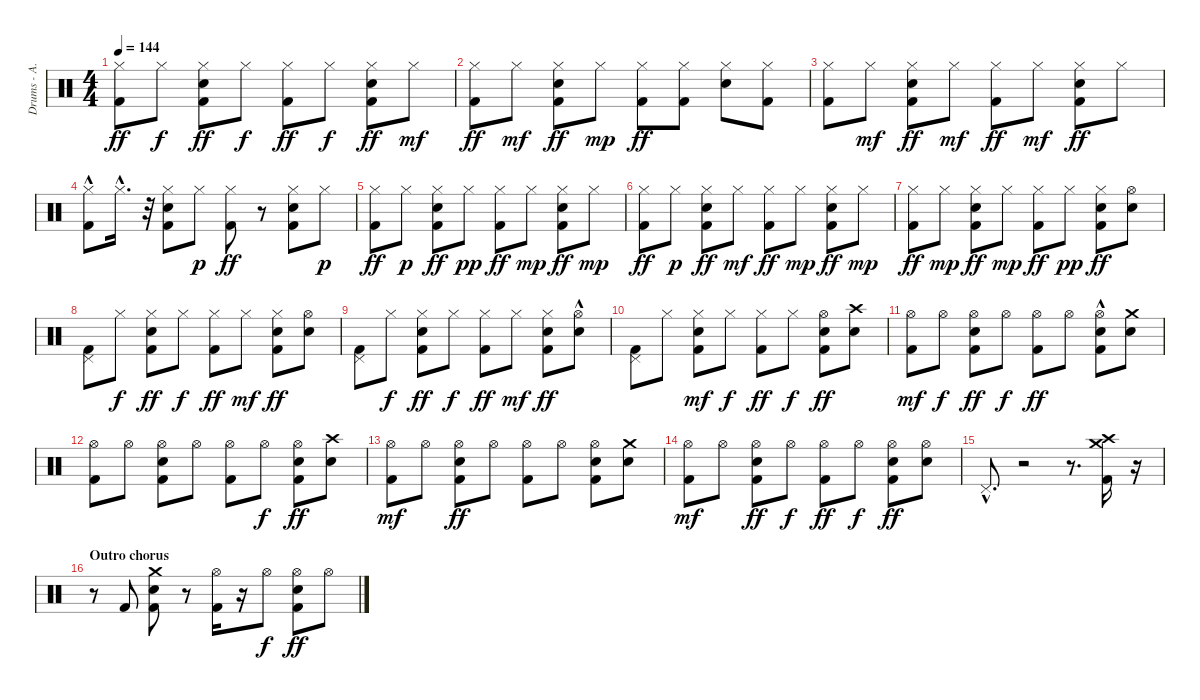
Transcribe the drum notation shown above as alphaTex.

\track ("Drums - A. Van Halen" "Drums - A.") {instrument percussion}
\staff {score}
\articulation defaults
\ts (4 4)
\tempo 144
\clef neutral
\ks c
("Kick (hit) 2" "Hi-Hat (closed)").8{dy ff} "Hi-Hat (closed)".8{dy f} ("Electric Snare (hit)" "Hi-Hat (closed)" "Kick (hit) 2").8{dy ff} "Hi-Hat (closed)".8{dy f} ("Hi-Hat (closed)" "Kick (hit) 2").8{dy ff} "Hi-Hat (closed)".8{dy f} ("Electric Snare (hit)" "Kick (hit) 2" "Hi-Hat (closed)").8{dy ff} "Hi-Hat (closed)".8{dy mf} |
("Kick (hit) 2" "Hi-Hat (closed)").8{dy ff} "Hi-Hat (closed)".8{dy mf} ("Kick (hit) 2" "Hi-Hat (closed)" "Electric Snare (hit)").8{dy ff} "Hi-Hat (closed)".8{dy mp} ("Hi-Hat (closed)" "Kick (hit) 2").8{dy ff} ("Hi-Hat (closed)" "Kick (hit) 2").8 ("Electric Snare (hit)" "Hi-Hat (closed)").8 ("Hi-Hat (closed)" "Kick (hit) 2").8 |
("Kick (hit) 2" "Hi-Hat (closed)").8 "Hi-Hat (closed)".8{dy mf} ("Kick (hit) 2" "Hi-Hat (closed)" "Electric Snare (hit)").8{dy ff} "Hi-Hat (closed)".8{dy mf} ("Kick (hit) 2" "Hi-Hat (closed)").8{dy ff} "Hi-Hat (closed)".8{dy mf} ("Electric Snare (hit)" "Hi-Hat (closed)" "Kick (hit) 2").8{dy ff} "Hi-Hat (closed)".8 |
("Kick (hit) 2" "Hi-Hat (closed)"{hac}).8 "Hi-Hat (closed)"{hac}.16{d} r.32 ("Kick (hit) 2" "Electric Snare (hit)" "Hi-Hat (closed)").8 "Hi-Hat (closed)".8{dy p} ("Kick (hit) 2" "Hi-Hat (closed)").8{dy ff} r.8 ("Electric Snare (hit)" "Kick (hit) 2" "Hi-Hat (closed)").8 "Hi-Hat (closed)".8{dy p} |
("Hi-Hat (closed)" "Kick (hit) 2").8{dy ff} "Hi-Hat (closed)".8{dy p} ("Electric Snare (hit)" "Hi-Hat (closed)" "Kick (hit) 2").8{dy ff} "Hi-Hat (closed)".8{dy pp} ("Hi-Hat (closed)" "Kick (hit) 2").8{dy ff} "Hi-Hat (closed)".8{dy mp} ("Hi-Hat (closed)" "Electric Snare (hit)" "Kick (hit) 2").8{dy ff} "Hi-Hat (closed)".8{dy mp} |
("Kick (hit) 2" "Hi-Hat (closed)").8{dy ff} "Hi-Hat (closed)".8{dy p} ("Electric Snare (hit)" "Hi-Hat (closed)" "Kick (hit) 2").8{dy ff} "Hi-Hat (closed)".8{dy mf} ("Hi-Hat (closed)" "Kick (hit) 2").8{dy ff} "Hi-Hat (closed)".8{dy mp} ("Electric Snare (hit)" "Hi-Hat (closed)" "Kick (hit) 2").8{dy ff} "Hi-Hat (closed)".8{dy mp} |
("Hi-Hat (closed)" "Kick (hit) 2").8{dy ff} "Hi-Hat (closed)".8{dy mp} ("Electric Snare (hit)" "Hi-Hat (closed)" "Kick (hit) 2").8{dy ff} "Hi-Hat (closed)".8{dy mp} ("Kick (hit) 2" "Hi-Hat (closed)").8{dy ff} "Hi-Hat (closed)".8{dy pp} ("Kick (hit) 2" "Electric Snare (hit)" "Hi-Hat (closed)").8{dy ff} ("Electric Snare (hit)" "Hi-Hat (open)").8 |
("Pedal Hi-Hat (hit)" "Kick (hit) 2").8 "Hi-Hat (closed)".8{dy f} ("Electric Snare (hit)" "Hi-Hat (closed)" "Kick (hit) 2").8{dy ff} "Hi-Hat (closed)".8{dy f} ("Hi-Hat (closed)" "Kick (hit) 2").8{dy ff} "Hi-Hat (closed)".8{dy mf} ("Hi-Hat (closed)" "Electric Snare (hit)" "Kick (hit) 2").8{dy ff} ("Electric Snare (hit)" "Hi-Hat (open)").8 |
("Pedal Hi-Hat (hit)" "Kick (hit) 2").8 "Hi-Hat (closed)".8{dy f} ("Electric Snare (hit)" "Kick (hit) 2" "Hi-Hat (closed)").8{dy ff} "Hi-Hat (closed)".8{dy f} ("Kick (hit) 2" "Hi-Hat (closed)").8{dy ff} "Hi-Hat (closed)".8{dy mf} ("Kick (hit) 2" "Hi-Hat (closed)" "Electric Snare (hit)").8{dy ff} ("Electric Snare (hit)" "Hi-Hat (open)"{hac}).8 |
("Kick (hit) 2" "Pedal Hi-Hat (hit)").8 "Hi-Hat (closed)".8 ("Kick (hit) 2" "Hi-Hat (closed)" "Electric Snare (hit)").8{dy mf} "Hi-Hat (closed)".8{dy f} ("Hi-Hat (closed)" "Kick (hit) 2").8{dy ff} "Hi-Hat (closed)".8{dy f} ("Hi-Hat (open)" "Electric Snare (hit)" "Kick (hit) 2").8{dy ff} ("Crash high (hit)" "Electric Snare (hit)").8 |
("Kick (hit) 2" "Hi-Hat (open)").8{dy mf} "Hi-Hat (open)".8{dy f} ("Electric Snare (hit)" "Hi-Hat (open)" "Kick (hit) 2").8{dy ff} "Hi-Hat (open)".8{dy f} ("Kick (hit) 2" "Hi-Hat (open)").8{dy ff} "Hi-Hat (open)".8 ("Kick (hit) 2" "Electric Snare (hit)" "Hi-Hat (open)"{hac}).8 ("Electric Snare (hit)" "Crash medium (hit)").8 |
("Hi-Hat (open)" "Kick (hit) 2").8 "Hi-Hat (open)".8 ("Electric Snare (hit)" "Hi-Hat (open)" "Kick (hit) 2").8 "Hi-Hat (open)".8 ("Kick (hit) 2" "Hi-Hat (open)").8 "Hi-Hat (open)".8{dy f} ("Kick (hit) 2" "Electric Snare (hit)" "Hi-Hat (open)").8{dy ff} ("Crash high (hit)" "Electric Snare (hit)").8 |
("Kick (hit) 2" "Hi-Hat (open)").8{dy mf} "Hi-Hat (open)".8 ("Kick (hit) 2" "Hi-Hat (open)" "Electric Snare (hit)").8{dy ff} "Hi-Hat (open)".8 ("Kick (hit) 2" "Hi-Hat (open)").8 "Hi-Hat (open)".8 ("Kick (hit) 2" "Electric Snare (hit)" "Hi-Hat (open)").8 ("Crash medium (hit)" "Electric Snare (hit)").8 |
("Kick (hit) 2" "Hi-Hat (open)").8{dy mf} "Hi-Hat (open)".8 ("Electric Snare (hit)" "Hi-Hat (open)" "Kick (hit) 2").8{dy ff} "Hi-Hat (open)".8{dy f} ("Hi-Hat (open)" "Kick (hit) 2").8{dy ff} "Hi-Hat (open)".8{dy f} ("Electric Snare (hit)" "Hi-Hat (open)" "Kick (hit) 2").8{dy ff} ("Electric Snare (hit)" "Hi-Hat (open)").8 |
"Pedal Hi-Hat (hit)"{hac}.8{d} r.2 r.8{d} ("Crash high (hit)" "Kick (hit) 2" "Crash medium (hit)").16 r.16 |
\section ("" "Outro chorus")
r.8 "Kick (hit) 2".8 ("Electric Snare (hit)" "Crash medium (hit)" "Kick (hit) 2").8 r.8 ("Kick (hit) 2" "Hi-Hat (open)").16 r.16 "Hi-Hat (open)".8{dy f} ("Electric Snare (hit)" "Hi-Hat (open)" "Kick (hit) 2").8{dy ff} "Hi-Hat (open)".8
